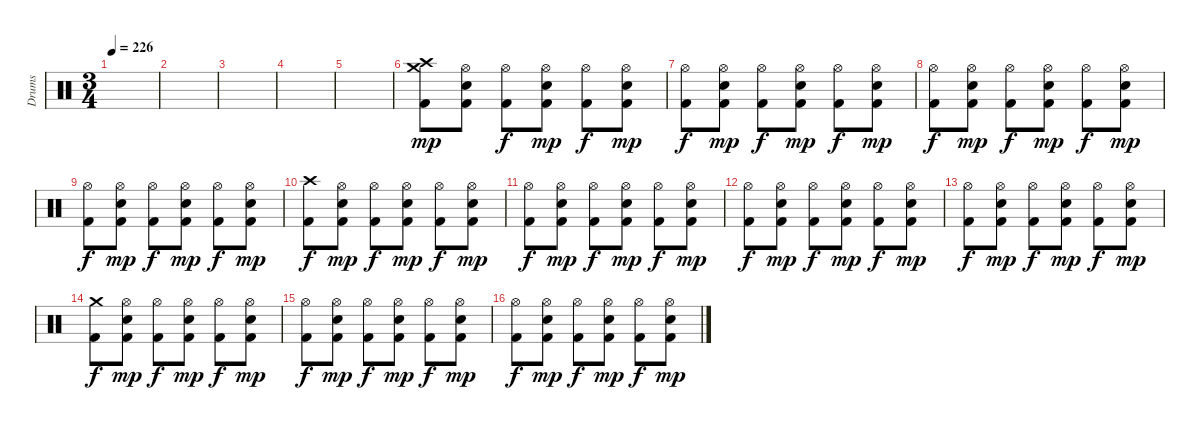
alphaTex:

\track ("Drums" "Drums") {instrument percussion}
\staff {score}
\articulation defaults
\ts (3 4)
\tempo 226
\clef neutral
\ks c
|
|
|
|
|
("Crash high (hit)" "Crash medium (hit)" "Kick (hit) 2").8{dy mp} ("Hi-Hat (open)" "Electric Snare (hit)" "Kick (hit) 2").8 ("Hi-Hat (open)" "Kick (hit) 2").8{dy f} ("Hi-Hat (open)" "Electric Snare (hit)" "Kick (hit) 2").8{dy mp} ("Hi-Hat (open)" "Kick (hit) 2").8{dy f} ("Hi-Hat (open)" "Electric Snare (hit)" "Kick (hit) 2").8{dy mp} |
("Hi-Hat (open)" "Kick (hit) 2").8{dy f} ("Hi-Hat (open)" "Electric Snare (hit)" "Kick (hit) 2").8{dy mp} ("Hi-Hat (open)" "Kick (hit) 2").8{dy f} ("Hi-Hat (open)" "Electric Snare (hit)" "Kick (hit) 2").8{dy mp} ("Hi-Hat (open)" "Kick (hit) 2").8{dy f} ("Hi-Hat (open)" "Electric Snare (hit)" "Kick (hit) 2").8{dy mp} |
("Hi-Hat (open)" "Kick (hit) 2").8{dy f} ("Hi-Hat (open)" "Electric Snare (hit)" "Kick (hit) 2").8{dy mp} ("Hi-Hat (open)" "Kick (hit) 2").8{dy f} ("Hi-Hat (open)" "Electric Snare (hit)" "Kick (hit) 2").8{dy mp} ("Hi-Hat (open)" "Kick (hit) 2").8{dy f} ("Hi-Hat (open)" "Electric Snare (hit)" "Kick (hit) 2").8{dy mp} |
("Hi-Hat (open)" "Kick (hit) 2").8{dy f} ("Hi-Hat (open)" "Electric Snare (hit)" "Kick (hit) 2").8{dy mp} ("Hi-Hat (open)" "Kick (hit) 2").8{dy f} ("Hi-Hat (open)" "Electric Snare (hit)" "Kick (hit) 2").8{dy mp} ("Hi-Hat (open)" "Kick (hit) 2").8{dy f} ("Hi-Hat (open)" "Electric Snare (hit)" "Kick (hit) 2").8{dy mp} |
("Crash high (hit)" "Kick (hit) 2").8{dy f} ("Hi-Hat (open)" "Electric Snare (hit)" "Kick (hit) 2").8{dy mp} ("Hi-Hat (open)" "Kick (hit) 2").8{dy f} ("Hi-Hat (open)" "Electric Snare (hit)" "Kick (hit) 2").8{dy mp} ("Hi-Hat (open)" "Kick (hit) 2").8{dy f} ("Hi-Hat (open)" "Electric Snare (hit)" "Kick (hit) 2").8{dy mp} |
("Hi-Hat (open)" "Kick (hit) 2").8{dy f} ("Hi-Hat (open)" "Electric Snare (hit)" "Kick (hit) 2").8{dy mp} ("Hi-Hat (open)" "Kick (hit) 2").8{dy f} ("Hi-Hat (open)" "Electric Snare (hit)" "Kick (hit) 2").8{dy mp} ("Hi-Hat (open)" "Kick (hit) 2").8{dy f} ("Hi-Hat (open)" "Electric Snare (hit)" "Kick (hit) 2").8{dy mp} |
("Hi-Hat (open)" "Kick (hit) 2").8{dy f} ("Hi-Hat (open)" "Electric Snare (hit)" "Kick (hit) 2").8{dy mp} ("Hi-Hat (open)" "Kick (hit) 2").8{dy f} ("Hi-Hat (open)" "Electric Snare (hit)" "Kick (hit) 2").8{dy mp} ("Hi-Hat (open)" "Kick (hit) 2").8{dy f} ("Hi-Hat (open)" "Electric Snare (hit)" "Kick (hit) 2").8{dy mp} |
("Hi-Hat (open)" "Kick (hit) 2").8{dy f} ("Hi-Hat (open)" "Electric Snare (hit)" "Kick (hit) 2").8{dy mp} ("Hi-Hat (open)" "Kick (hit) 2").8{dy f} ("Hi-Hat (open)" "Electric Snare (hit)" "Kick (hit) 2").8{dy mp} ("Hi-Hat (open)" "Kick (hit) 2").8{dy f} ("Hi-Hat (open)" "Electric Snare (hit)" "Kick (hit) 2").8{dy mp} |
("Crash medium (hit)" "Kick (hit) 2").8{dy f} ("Hi-Hat (open)" "Electric Snare (hit)" "Kick (hit) 2").8{dy mp} ("Hi-Hat (open)" "Kick (hit) 2").8{dy f} ("Hi-Hat (open)" "Electric Snare (hit)" "Kick (hit) 2").8{dy mp} ("Hi-Hat (open)" "Kick (hit) 2").8{dy f} ("Hi-Hat (open)" "Electric Snare (hit)" "Kick (hit) 2").8{dy mp} |
("Hi-Hat (open)" "Kick (hit) 2").8{dy f} ("Hi-Hat (open)" "Electric Snare (hit)" "Kick (hit) 2").8{dy mp} ("Hi-Hat (open)" "Kick (hit) 2").8{dy f} ("Hi-Hat (open)" "Electric Snare (hit)" "Kick (hit) 2").8{dy mp} ("Hi-Hat (open)" "Kick (hit) 2").8{dy f} ("Hi-Hat (open)" "Electric Snare (hit)" "Kick (hit) 2").8{dy mp} |
("Hi-Hat (open)" "Kick (hit) 2").8{dy f} ("Hi-Hat (open)" "Electric Snare (hit)" "Kick (hit) 2").8{dy mp} ("Hi-Hat (open)" "Kick (hit) 2").8{dy f} ("Hi-Hat (open)" "Electric Snare (hit)" "Kick (hit) 2").8{dy mp} ("Hi-Hat (open)" "Kick (hit) 2").8{dy f} ("Hi-Hat (open)" "Electric Snare (hit)" "Kick (hit) 2").8{dy mp}
